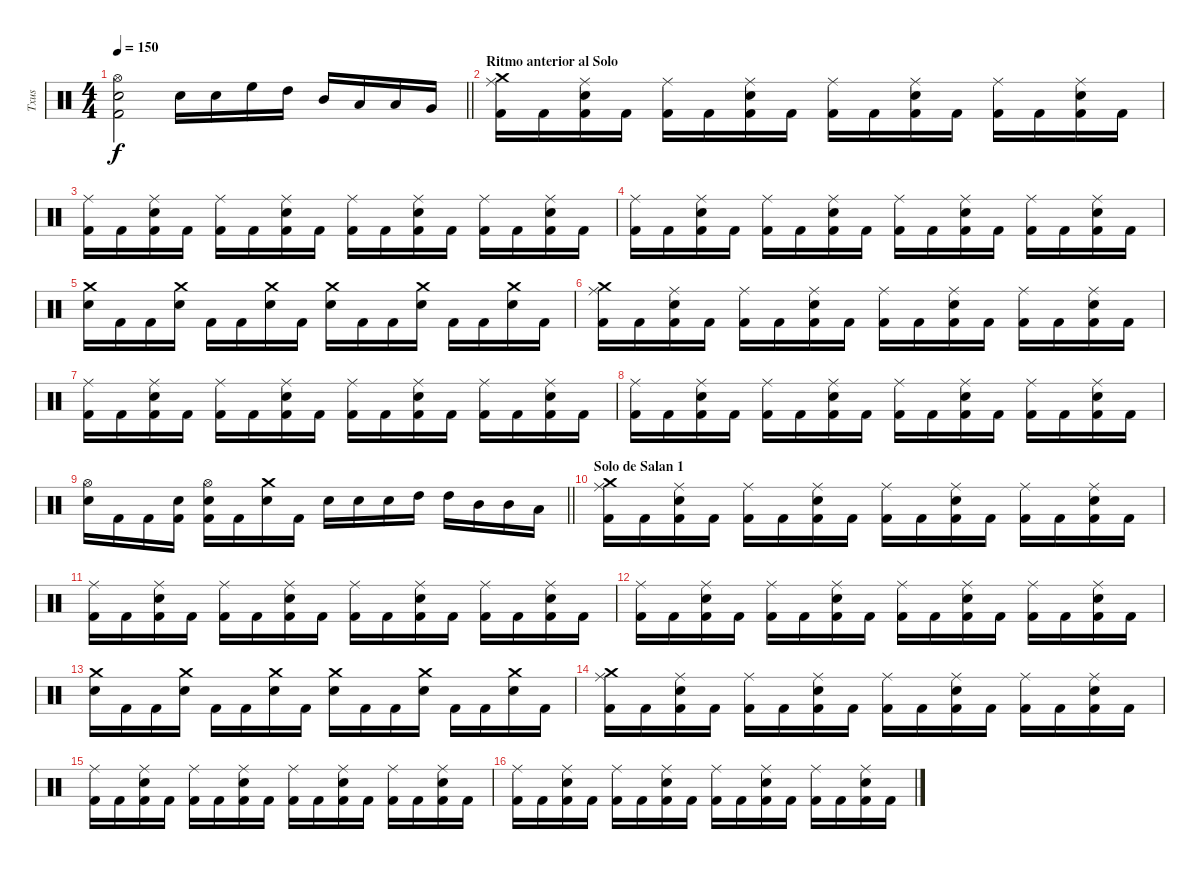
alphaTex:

\track ("Txus" "Txus") {instrument percussion}
\staff {score}
\articulation defaults
\ts (4 4)
\tempo 150
\clef neutral
\barLineRight lightlight
\ks c
("Hi-Hat (open)" "Electric Snare (hit)" "Kick (hit) 2").2{dy f} "Electric Snare (hit)".16 "Electric Snare (hit)".16 "High Floor Tom (hit)".16 "High Tom (hit)".16 "Mid Tom (hit)".16 "Low Tom (hit)".16 "Low Tom (hit)".16 "Very Low Tom (hit)".16 |
\section ("" "Ritmo anterior al Solo")
("Crash medium (hit)" "Ride (middle)" "Kick (hit) 2").16 "Kick (hit) 2".16 ("Ride (middle)" "Electric Snare (hit)" "Kick (hit) 2").16 "Kick (hit) 2".16 ("Ride (middle)" "Kick (hit) 2").16 "Kick (hit) 2".16 ("Ride (middle)" "Electric Snare (hit)" "Kick (hit) 2").16 "Kick (hit) 2".16 ("Ride (middle)" "Kick (hit) 2").16 "Kick (hit) 2".16 ("Ride (middle)" "Electric Snare (hit)" "Kick (hit) 2").16 "Kick (hit) 2".16 ("Ride (middle)" "Kick (hit) 2").16 "Kick (hit) 2".16 ("Ride (middle)" "Electric Snare (hit)" "Kick (hit) 2").16 "Kick (hit) 2".16 |
("Ride (middle)" "Kick (hit) 2").16 "Kick (hit) 2".16 ("Ride (middle)" "Electric Snare (hit)" "Kick (hit) 2").16 "Kick (hit) 2".16 ("Ride (middle)" "Kick (hit) 2").16 "Kick (hit) 2".16 ("Ride (middle)" "Electric Snare (hit)" "Kick (hit) 2").16 "Kick (hit) 2".16 ("Ride (middle)" "Kick (hit) 2").16 "Kick (hit) 2".16 ("Ride (middle)" "Electric Snare (hit)" "Kick (hit) 2").16 "Kick (hit) 2".16 ("Ride (middle)" "Kick (hit) 2").16 "Kick (hit) 2".16 ("Ride (middle)" "Electric Snare (hit)" "Kick (hit) 2").16 "Kick (hit) 2".16 |
("Ride (middle)" "Kick (hit) 2").16 "Kick (hit) 2".16 ("Ride (middle)" "Electric Snare (hit)" "Kick (hit) 2").16 "Kick (hit) 2".16 ("Ride (middle)" "Kick (hit) 2").16 "Kick (hit) 2".16 ("Ride (middle)" "Electric Snare (hit)" "Kick (hit) 2").16 "Kick (hit) 2".16 ("Ride (middle)" "Kick (hit) 2").16 "Kick (hit) 2".16 ("Ride (middle)" "Electric Snare (hit)" "Kick (hit) 2").16 "Kick (hit) 2".16 ("Ride (middle)" "Kick (hit) 2").16 "Kick (hit) 2".16 ("Ride (middle)" "Electric Snare (hit)" "Kick (hit) 2").16 "Kick (hit) 2".16 |
("Crash medium (hit)" "Electric Snare (hit)").16 "Kick (hit) 2".16 "Kick (hit) 2".16 ("Crash medium (hit)" "Electric Snare (hit)").16 "Kick (hit) 2".16 "Kick (hit) 2".16 ("Crash medium (hit)" "Electric Snare (hit)").16 "Kick (hit) 2".16 ("Crash medium (hit)" "Electric Snare (hit)").16 "Kick (hit) 2".16 "Kick (hit) 2".16 ("Crash medium (hit)" "Electric Snare (hit)").16 "Kick (hit) 2".16 "Kick (hit) 2".16 ("Crash medium (hit)" "Electric Snare (hit)").16 "Kick (hit) 2".16 |
("Crash medium (hit)" "Ride (middle)" "Kick (hit) 2").16 "Kick (hit) 2".16 ("Ride (middle)" "Electric Snare (hit)" "Kick (hit) 2").16 "Kick (hit) 2".16 ("Ride (middle)" "Kick (hit) 2").16 "Kick (hit) 2".16 ("Ride (middle)" "Electric Snare (hit)" "Kick (hit) 2").16 "Kick (hit) 2".16 ("Ride (middle)" "Kick (hit) 2").16 "Kick (hit) 2".16 ("Ride (middle)" "Electric Snare (hit)" "Kick (hit) 2").16 "Kick (hit) 2".16 ("Ride (middle)" "Kick (hit) 2").16 "Kick (hit) 2".16 ("Ride (middle)" "Electric Snare (hit)" "Kick (hit) 2").16 "Kick (hit) 2".16 |
("Ride (middle)" "Kick (hit) 2").16 "Kick (hit) 2".16 ("Ride (middle)" "Electric Snare (hit)" "Kick (hit) 2").16 "Kick (hit) 2".16 ("Ride (middle)" "Kick (hit) 2").16 "Kick (hit) 2".16 ("Ride (middle)" "Electric Snare (hit)" "Kick (hit) 2").16 "Kick (hit) 2".16 ("Ride (middle)" "Kick (hit) 2").16 "Kick (hit) 2".16 ("Ride (middle)" "Electric Snare (hit)" "Kick (hit) 2").16 "Kick (hit) 2".16 ("Ride (middle)" "Kick (hit) 2").16 "Kick (hit) 2".16 ("Ride (middle)" "Electric Snare (hit)" "Kick (hit) 2").16 "Kick (hit) 2".16 |
("Ride (middle)" "Kick (hit) 2").16 "Kick (hit) 2".16 ("Ride (middle)" "Electric Snare (hit)" "Kick (hit) 2").16 "Kick (hit) 2".16 ("Ride (middle)" "Kick (hit) 2").16 "Kick (hit) 2".16 ("Ride (middle)" "Electric Snare (hit)" "Kick (hit) 2").16 "Kick (hit) 2".16 ("Ride (middle)" "Kick (hit) 2").16 "Kick (hit) 2".16 ("Ride (middle)" "Electric Snare (hit)" "Kick (hit) 2").16 "Kick (hit) 2".16 ("Ride (middle)" "Kick (hit) 2").16 "Kick (hit) 2".16 ("Ride (middle)" "Electric Snare (hit)" "Kick (hit) 2").16 "Kick (hit) 2".16 |
\barLineRight lightlight
("Hi-Hat (open)" "Electric Snare (hit)").16 "Kick (hit) 2".16 "Kick (hit) 2".16 ("Electric Snare (hit)" "Kick (hit) 2").16 ("Hi-Hat (open)" "Electric Snare (hit)" "Kick (hit) 2").16 "Kick (hit) 2".16 ("Crash medium (hit)" "Electric Snare (hit)").16 "Kick (hit) 2".16 "Electric Snare (hit)".16 "Electric Snare (hit)".16 "Electric Snare (hit)".16 "High Tom (hit)".16 "High Tom (hit)".16 "Mid Tom (hit)".16 "Mid Tom (hit)".16 "Low Tom (hit)".16 |
\section ("" "Solo de Salan 1")
("Crash medium (hit)" "Ride (middle)" "Kick (hit) 2").16 "Kick (hit) 2".16 ("Ride (middle)" "Electric Snare (hit)" "Kick (hit) 2").16 "Kick (hit) 2".16 ("Ride (middle)" "Kick (hit) 2").16 "Kick (hit) 2".16 ("Ride (middle)" "Electric Snare (hit)" "Kick (hit) 2").16 "Kick (hit) 2".16 ("Ride (middle)" "Kick (hit) 2").16 "Kick (hit) 2".16 ("Ride (middle)" "Electric Snare (hit)" "Kick (hit) 2").16 "Kick (hit) 2".16 ("Ride (middle)" "Kick (hit) 2").16 "Kick (hit) 2".16 ("Ride (middle)" "Electric Snare (hit)" "Kick (hit) 2").16 "Kick (hit) 2".16 |
("Ride (middle)" "Kick (hit) 2").16 "Kick (hit) 2".16 ("Ride (middle)" "Electric Snare (hit)" "Kick (hit) 2").16 "Kick (hit) 2".16 ("Ride (middle)" "Kick (hit) 2").16 "Kick (hit) 2".16 ("Ride (middle)" "Electric Snare (hit)" "Kick (hit) 2").16 "Kick (hit) 2".16 ("Ride (middle)" "Kick (hit) 2").16 "Kick (hit) 2".16 ("Ride (middle)" "Electric Snare (hit)" "Kick (hit) 2").16 "Kick (hit) 2".16 ("Ride (middle)" "Kick (hit) 2").16 "Kick (hit) 2".16 ("Ride (middle)" "Electric Snare (hit)" "Kick (hit) 2").16 "Kick (hit) 2".16 |
("Ride (middle)" "Kick (hit) 2").16 "Kick (hit) 2".16 ("Ride (middle)" "Electric Snare (hit)" "Kick (hit) 2").16 "Kick (hit) 2".16 ("Ride (middle)" "Kick (hit) 2").16 "Kick (hit) 2".16 ("Ride (middle)" "Electric Snare (hit)" "Kick (hit) 2").16 "Kick (hit) 2".16 ("Ride (middle)" "Kick (hit) 2").16 "Kick (hit) 2".16 ("Ride (middle)" "Electric Snare (hit)" "Kick (hit) 2").16 "Kick (hit) 2".16 ("Ride (middle)" "Kick (hit) 2").16 "Kick (hit) 2".16 ("Ride (middle)" "Electric Snare (hit)" "Kick (hit) 2").16 "Kick (hit) 2".16 |
("Crash medium (hit)" "Electric Snare (hit)").16 "Kick (hit) 2".16 "Kick (hit) 2".16 ("Crash medium (hit)" "Electric Snare (hit)").16 "Kick (hit) 2".16 "Kick (hit) 2".16 ("Crash medium (hit)" "Electric Snare (hit)").16 "Kick (hit) 2".16 ("Crash medium (hit)" "Electric Snare (hit)").16 "Kick (hit) 2".16 "Kick (hit) 2".16 ("Crash medium (hit)" "Electric Snare (hit)").16 "Kick (hit) 2".16 "Kick (hit) 2".16 ("Crash medium (hit)" "Electric Snare (hit)").16 "Kick (hit) 2".16 |
("Crash medium (hit)" "Ride (middle)" "Kick (hit) 2").16 "Kick (hit) 2".16 ("Ride (middle)" "Electric Snare (hit)" "Kick (hit) 2").16 "Kick (hit) 2".16 ("Ride (middle)" "Kick (hit) 2").16 "Kick (hit) 2".16 ("Ride (middle)" "Electric Snare (hit)" "Kick (hit) 2").16 "Kick (hit) 2".16 ("Ride (middle)" "Kick (hit) 2").16 "Kick (hit) 2".16 ("Ride (middle)" "Electric Snare (hit)" "Kick (hit) 2").16 "Kick (hit) 2".16 ("Ride (middle)" "Kick (hit) 2").16 "Kick (hit) 2".16 ("Ride (middle)" "Electric Snare (hit)" "Kick (hit) 2").16 "Kick (hit) 2".16 |
("Ride (middle)" "Kick (hit) 2").16 "Kick (hit) 2".16 ("Ride (middle)" "Electric Snare (hit)" "Kick (hit) 2").16 "Kick (hit) 2".16 ("Ride (middle)" "Kick (hit) 2").16 "Kick (hit) 2".16 ("Ride (middle)" "Electric Snare (hit)" "Kick (hit) 2").16 "Kick (hit) 2".16 ("Ride (middle)" "Kick (hit) 2").16 "Kick (hit) 2".16 ("Ride (middle)" "Electric Snare (hit)" "Kick (hit) 2").16 "Kick (hit) 2".16 ("Ride (middle)" "Kick (hit) 2").16 "Kick (hit) 2".16 ("Ride (middle)" "Electric Snare (hit)" "Kick (hit) 2").16 "Kick (hit) 2".16 |
("Ride (middle)" "Kick (hit) 2").16 "Kick (hit) 2".16 ("Ride (middle)" "Electric Snare (hit)" "Kick (hit) 2").16 "Kick (hit) 2".16 ("Ride (middle)" "Kick (hit) 2").16 "Kick (hit) 2".16 ("Ride (middle)" "Electric Snare (hit)" "Kick (hit) 2").16 "Kick (hit) 2".16 ("Ride (middle)" "Kick (hit) 2").16 "Kick (hit) 2".16 ("Ride (middle)" "Electric Snare (hit)" "Kick (hit) 2").16 "Kick (hit) 2".16 ("Ride (middle)" "Kick (hit) 2").16 "Kick (hit) 2".16 ("Ride (middle)" "Electric Snare (hit)" "Kick (hit) 2").16 "Kick (hit) 2".16
